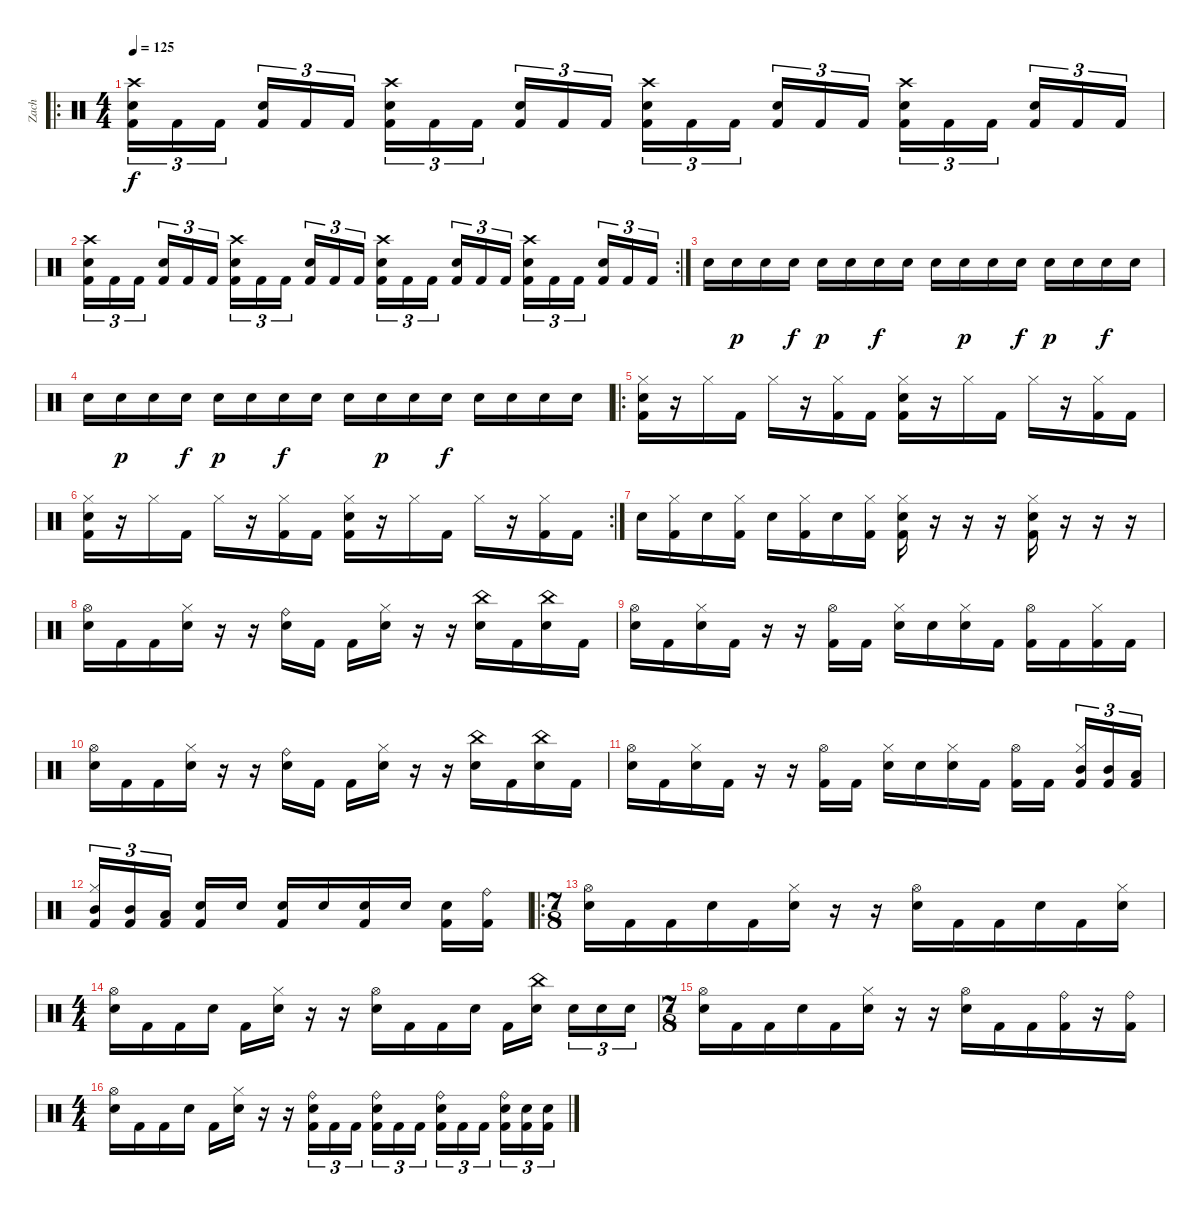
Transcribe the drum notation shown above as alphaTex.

\track ("Zach" "Zach") {instrument percussion}
\staff {score}
\articulation defaults
\ro
\ts (4 4)
\tempo 125
\clef neutral
\ks c
("Crash high (hit)" "Electric Snare (hit)" "Kick (hit) 2").16{tu (3 2) dy f} "Kick (hit) 2".16{tu (3 2)} "Kick (hit) 2".16{tu (3 2) beam splitsecondary} ("Electric Snare (hit)" "Kick (hit) 2").16{tu (3 2)} "Kick (hit) 2".16{tu (3 2)} "Kick (hit) 2".16{tu (3 2)} ("Crash high (hit)" "Electric Snare (hit)" "Kick (hit) 2").16{tu (3 2)} "Kick (hit) 2".16{tu (3 2)} "Kick (hit) 2".16{tu (3 2) beam splitsecondary} ("Electric Snare (hit)" "Kick (hit) 2").16{tu (3 2)} "Kick (hit) 2".16{tu (3 2)} "Kick (hit) 2".16{tu (3 2)} ("Crash high (hit)" "Electric Snare (hit)" "Kick (hit) 2").16{tu (3 2)} "Kick (hit) 2".16{tu (3 2)} "Kick (hit) 2".16{tu (3 2) beam splitsecondary} ("Electric Snare (hit)" "Kick (hit) 2").16{tu (3 2)} "Kick (hit) 2".16{tu (3 2)} "Kick (hit) 2".16{tu (3 2)} ("Crash high (hit)" "Electric Snare (hit)" "Kick (hit) 2").16{tu (3 2)} "Kick (hit) 2".16{tu (3 2)} "Kick (hit) 2".16{tu (3 2) beam splitsecondary} ("Electric Snare (hit)" "Kick (hit) 2").16{tu (3 2)} "Kick (hit) 2".16{tu (3 2)} "Kick (hit) 2".16{tu (3 2)} |
\rc 2
("Crash high (hit)" "Electric Snare (hit)" "Kick (hit) 2").16{tu (3 2)} "Kick (hit) 2".16{tu (3 2)} "Kick (hit) 2".16{tu (3 2) beam splitsecondary} ("Electric Snare (hit)" "Kick (hit) 2").16{tu (3 2)} "Kick (hit) 2".16{tu (3 2)} "Kick (hit) 2".16{tu (3 2)} ("Crash high (hit)" "Electric Snare (hit)" "Kick (hit) 2").16{tu (3 2)} "Kick (hit) 2".16{tu (3 2)} "Kick (hit) 2".16{tu (3 2) beam splitsecondary} ("Electric Snare (hit)" "Kick (hit) 2").16{tu (3 2)} "Kick (hit) 2".16{tu (3 2)} "Kick (hit) 2".16{tu (3 2)} ("Crash high (hit)" "Electric Snare (hit)" "Kick (hit) 2").16{tu (3 2)} "Kick (hit) 2".16{tu (3 2)} "Kick (hit) 2".16{tu (3 2) beam splitsecondary} ("Electric Snare (hit)" "Kick (hit) 2").16{tu (3 2)} "Kick (hit) 2".16{tu (3 2)} "Kick (hit) 2".16{tu (3 2)} ("Crash high (hit)" "Electric Snare (hit)" "Kick (hit) 2").16{tu (3 2)} "Kick (hit) 2".16{tu (3 2)} "Kick (hit) 2".16{tu (3 2) beam splitsecondary} ("Electric Snare (hit)" "Kick (hit) 2").16{tu (3 2)} "Kick (hit) 2".16{tu (3 2)} "Kick (hit) 2".16{tu (3 2)} |
"Electric Snare (hit)".16 "Electric Snare (hit)".16{dy p} "Electric Snare (hit)".16 "Electric Snare (hit)".16{dy f} "Electric Snare (hit)".16{dy p} "Electric Snare (hit)".16 "Electric Snare (hit)".16{dy f} "Electric Snare (hit)".16 "Electric Snare (hit)".16 "Electric Snare (hit)".16{dy p} "Electric Snare (hit)".16 "Electric Snare (hit)".16{dy f} "Electric Snare (hit)".16{dy p} "Electric Snare (hit)".16 "Electric Snare (hit)".16{dy f} "Electric Snare (hit)".16 |
"Electric Snare (hit)".16 "Electric Snare (hit)".16{dy p} "Electric Snare (hit)".16 "Electric Snare (hit)".16{dy f} "Electric Snare (hit)".16{dy p} "Electric Snare (hit)".16 "Electric Snare (hit)".16{dy f} "Electric Snare (hit)".16 "Electric Snare (hit)".16 "Electric Snare (hit)".16{dy p} "Electric Snare (hit)".16 "Electric Snare (hit)".16{dy f} "Electric Snare (hit)".16 "Electric Snare (hit)".16 "Electric Snare (hit)".16 "Electric Snare (hit)".16 |
\ro
("Hi-Hat (closed)" "Electric Snare (hit)" "Kick (hit) 2").16 r.16 "Hi-Hat (closed)".16 "Kick (hit) 2".16 "Hi-Hat (closed)".16 r.16 ("Hi-Hat (closed)" "Kick (hit) 2").16 "Kick (hit) 2".16 ("Hi-Hat (closed)" "Electric Snare (hit)" "Kick (hit) 2").16 r.16 "Hi-Hat (closed)".16 "Kick (hit) 2".16 "Hi-Hat (closed)".16 r.16 ("Hi-Hat (closed)" "Kick (hit) 2").16 "Kick (hit) 2".16 |
\rc 2
("Hi-Hat (closed)" "Electric Snare (hit)" "Kick (hit) 2").16 r.16 "Hi-Hat (closed)".16 "Kick (hit) 2".16 "Hi-Hat (closed)".16 r.16 ("Hi-Hat (closed)" "Kick (hit) 2").16 "Kick (hit) 2".16 ("Hi-Hat (closed)" "Electric Snare (hit)" "Kick (hit) 2").16 r.16 "Hi-Hat (closed)".16 "Kick (hit) 2".16 "Hi-Hat (closed)".16 r.16 ("Hi-Hat (closed)" "Kick (hit) 2").16 "Kick (hit) 2".16 |
"Electric Snare (hit)".16 ("Hi-Hat (closed)" "Kick (hit) 2").16 "Electric Snare (hit)".16 ("Hi-Hat (closed)" "Kick (hit) 2").16 "Electric Snare (hit)".16 ("Hi-Hat (closed)" "Kick (hit) 2").16 "Electric Snare (hit)".16 ("Hi-Hat (closed)" "Kick (hit) 2").16 ("Hi-Hat (closed)" "Electric Snare (hit)" "Kick (hit) 2").16 r.16 r.16 r.16 ("Hi-Hat (closed)" "Electric Snare (hit)" "Kick (hit) 2").16 r.16 r.16 r.16 |
("Hi-Hat (open)" "Electric Snare (hit)").16 "Kick (hit) 2".16 "Kick (hit) 2".16 ("Hi-Hat (closed)" "Electric Snare (hit)").16 r.16 r.16 ("Ride (bell)" "Electric Snare (hit)").16 "Kick (hit) 2".16 "Kick (hit) 2".16 ("Hi-Hat (closed)" "Electric Snare (hit)").16 r.16 r.16 ("China (hit)" "Electric Snare (hit)").16 "Kick (hit) 2".16 ("China (hit)" "Electric Snare (hit)").16 "Kick (hit) 2".16 |
("Hi-Hat (open)" "Electric Snare (hit)").16 "Kick (hit) 2".16 ("Hi-Hat (closed)" "Electric Snare (hit)").16 "Kick (hit) 2".16 r.16 r.16 ("Hi-Hat (open)" "Kick (hit) 2").16 "Kick (hit) 2".16 ("Hi-Hat (closed)" "Electric Snare (hit)").16 "Electric Snare (hit)".16 ("Hi-Hat (closed)" "Electric Snare (hit)").16 "Kick (hit) 2".16 ("Hi-Hat (open)" "Kick (hit) 2").16 "Kick (hit) 2".16 ("Hi-Hat (closed)" "Kick (hit) 2").16 "Kick (hit) 2".16 |
("Hi-Hat (open)" "Electric Snare (hit)").16 "Kick (hit) 2".16 "Kick (hit) 2".16 ("Hi-Hat (closed)" "Electric Snare (hit)").16 r.16 r.16 ("Ride (bell)" "Electric Snare (hit)").16 "Kick (hit) 2".16 "Kick (hit) 2".16 ("Hi-Hat (closed)" "Electric Snare (hit)").16 r.16 r.16 ("China (hit)" "Electric Snare (hit)").16 "Kick (hit) 2".16 ("China (hit)" "Electric Snare (hit)").16 "Kick (hit) 2".16 |
("Hi-Hat (open)" "Electric Snare (hit)").16 "Kick (hit) 2".16 ("Hi-Hat (closed)" "Electric Snare (hit)").16 "Kick (hit) 2".16 r.16 r.16 ("Hi-Hat (open)" "Kick (hit) 2").16 "Kick (hit) 2".16 ("Hi-Hat (closed)" "Electric Snare (hit)").16 "Electric Snare (hit)".16 ("Hi-Hat (closed)" "Electric Snare (hit)").16 "Kick (hit) 2".16 ("Hi-Hat (open)" "Kick (hit) 2").16 "Kick (hit) 2".16{beam splitsecondary} ("Hi-Hat (closed)" "Mid Tom (hit)" "Kick (hit) 2").16{tu (3 2)} ("Mid Tom (hit)" "Kick (hit) 2").16{tu (3 2)} ("Low Tom (hit)" "Kick (hit) 2").16{tu (3 2)} |
("Hi-Hat (closed)" "Mid Tom (hit)" "Kick (hit) 2").16{tu (3 2)} ("Mid Tom (hit)" "Kick (hit) 2").16{tu (3 2)} ("Low Tom (hit)" "Kick (hit) 2").16{tu (3 2) beam splitsecondary} ("Electric Snare (hit)" "Kick (hit) 2").16 "Electric Snare (hit)".16 ("Electric Snare (hit)" "Kick (hit) 2").16 "Electric Snare (hit)".16 ("Electric Snare (hit)" "Kick (hit) 2").16 "Electric Snare (hit)".16 ("Electric Snare (hit)" "Kick (hit) 2").16 ("Ride (bell)" "Kick (hit) 2").16 |
\ro
\ts (7 8)
("Hi-Hat (open)" "Electric Snare (hit)").16 "Kick (hit) 2".16 "Kick (hit) 2".16 "Electric Snare (hit)".16 "Kick (hit) 2".16 ("Hi-Hat (closed)" "Electric Snare (hit)").16 r.16 r.16 ("Hi-Hat (open)" "Electric Snare (hit)").16 "Kick (hit) 2".16 "Kick (hit) 2".16 "Electric Snare (hit)".16 "Kick (hit) 2".16 ("Hi-Hat (closed)" "Electric Snare (hit)").16 |
\ts (4 4)
("Hi-Hat (open)" "Electric Snare (hit)").16 "Kick (hit) 2".16 "Kick (hit) 2".16 "Electric Snare (hit)".16 "Kick (hit) 2".16 ("Hi-Hat (closed)" "Electric Snare (hit)").16 r.16 r.16 ("Hi-Hat (open)" "Electric Snare (hit)").16 "Kick (hit) 2".16 "Kick (hit) 2".16 "Electric Snare (hit)".16 "Kick (hit) 2".16 ("China (hit)" "Electric Snare (hit)").16{beam splitsecondary} "Electric Snare (hit)".16{tu (3 2)} "Electric Snare (hit)".16{tu (3 2)} "Electric Snare (hit)".16{tu (3 2)} |
\ts (7 8)
("Hi-Hat (open)" "Electric Snare (hit)").16 "Kick (hit) 2".16 "Kick (hit) 2".16 "Electric Snare (hit)".16 "Kick (hit) 2".16 ("Hi-Hat (closed)" "Electric Snare (hit)").16 r.16 r.16 ("Hi-Hat (open)" "Electric Snare (hit)").16 "Kick (hit) 2".16 "Kick (hit) 2".16 ("Ride (bell)" "Kick (hit) 2").16 r.16 ("Ride (bell)" "Kick (hit) 2").16 |
\ts (4 4)
("Hi-Hat (open)" "Electric Snare (hit)").16 "Kick (hit) 2".16 "Kick (hit) 2".16 "Electric Snare (hit)".16 "Kick (hit) 2".16 ("Hi-Hat (closed)" "Electric Snare (hit)").16 r.16 r.16 ("Ride (bell)" "Electric Snare (hit)" "Kick (hit) 2").16{tu (3 2)} "Kick (hit) 2".16{tu (3 2)} "Kick (hit) 2".16{tu (3 2) beam splitsecondary} ("Ride (bell)" "Electric Snare (hit)" "Kick (hit) 2").16{tu (3 2)} "Kick (hit) 2".16{tu (3 2)} "Kick (hit) 2".16{tu (3 2)} ("Ride (bell)" "Electric Snare (hit)" "Kick (hit) 2").16{tu (3 2)} "Kick (hit) 2".16{tu (3 2)} "Kick (hit) 2".16{tu (3 2) beam splitsecondary} ("Ride (bell)" "Electric Snare (hit)" "Kick (hit) 2").16{tu (3 2)} ("Electric Snare (hit)" "Kick (hit) 2").16{tu (3 2)} ("Electric Snare (hit)" "Kick (hit) 2").16{tu (3 2)}
